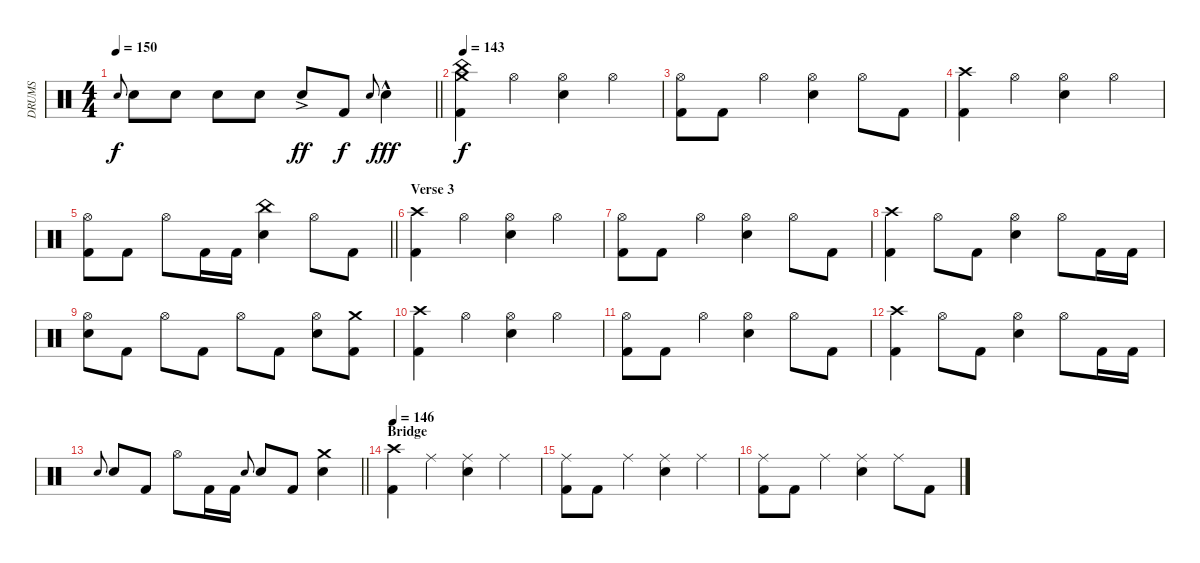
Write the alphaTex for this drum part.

\track ("DRUMS" "DRUMS") {instrument percussion}
\staff {score}
\articulation defaults
\ts (4 4)
\tempo 150
\clef neutral
\barLineRight lightlight
\ks c "Snare (hit) 2".8{gr onbeat dy f} "Snare (hit) 2".8 "Snare (hit) 2".8 "Snare (hit) 2".8 "Snare (hit) 2".8 "Snare (hit) 2"{ac}.8{dy ff} "Kick (hit) 2".8{dy f} "Snare (hit) 2".8{gr onbeat} "Snare (hit) 2"{hac}.4{dy fff}
|
\tempo 143
("Crash medium (hit)" "China (hit)" "Kick (hit) 2").4{dy f} "Hi-Hat (open)".4 ("Hi-Hat (open)" "Snare (hit) 2").4 "Hi-Hat (open)".4 |
("Hi-Hat (open)" "Kick (hit) 2").8 "Kick (hit) 2".8 "Hi-Hat (open)".4 ("Hi-Hat (open)" "Snare (hit) 2").4 "Hi-Hat (open)".8 "Kick (hit) 2".8 |
("Crash high (hit)" "Kick (hit) 2").4 "Hi-Hat (open)".4 ("Hi-Hat (open)" "Snare (hit) 2").4 "Hi-Hat (open)".4 |
\barLineRight lightlight
("Hi-Hat (open)" "Kick (hit) 2").8 "Kick (hit) 2".8 "Hi-Hat (open)".8 "Kick (hit) 2".16 "Kick (hit) 2".16 ("China (hit)" "Snare (hit) 2").4 "Hi-Hat (open)".8 "Kick (hit) 2".8 |
\section ("" "Verse 3")
("Crash high (hit)" "Kick (hit) 2").4 "Hi-Hat (open)".4 ("Hi-Hat (open)" "Snare (hit) 2").4 "Hi-Hat (open)".4 |
("Hi-Hat (open)" "Kick (hit) 2").8 "Kick (hit) 2".8 "Hi-Hat (open)".4 ("Hi-Hat (open)" "Snare (hit) 2").4 "Hi-Hat (open)".8 "Kick (hit) 2".8 |
("Crash high (hit)" "Kick (hit) 2").4 "Hi-Hat (open)".8 "Kick (hit) 2".8 ("Hi-Hat (open)" "Snare (hit) 2").4 "Hi-Hat (open)".8 "Kick (hit) 2".16 "Kick (hit) 2".16 |
("Hi-Hat (open)" "Snare (hit) 2").8 "Kick (hit) 2".8 "Hi-Hat (open)".8 "Kick (hit) 2".8 "Hi-Hat (open)".8 "Kick (hit) 2".8 ("Hi-Hat (open)" "Snare (hit) 2").8 ("Crash medium (hit)" "Kick (hit) 2").8 |
("Crash high (hit)" "Kick (hit) 2").4 "Hi-Hat (open)".4 ("Hi-Hat (open)" "Snare (hit) 2").4 "Hi-Hat (open)".4 |
("Hi-Hat (open)" "Kick (hit) 2").8 "Kick (hit) 2".8 "Hi-Hat (open)".4 ("Hi-Hat (open)" "Snare (hit) 2").4 "Hi-Hat (open)".8 "Kick (hit) 2".8 |
("Crash high (hit)" "Kick (hit) 2").4 "Hi-Hat (open)".8 "Kick (hit) 2".8 ("Hi-Hat (open)" "Snare (hit) 2").4 "Hi-Hat (open)".8 "Kick (hit) 2".16 "Kick (hit) 2".16 |
\barLineRight lightlight "Snare (hit) 2".8{gr onbeat} "Snare (hit) 2".8 "Kick (hit) 2".8 "Hi-Hat (open)".8 "Kick (hit) 2".16 "Kick (hit) 2".16 "Snare (hit) 2".8{gr onbeat} "Snare (hit) 2".8 "Kick (hit) 2".8
("Crash medium (hit)" "Snare (hit) 2").4 |
\section ("" "Bridge")
\tempo 146
("Crash high (hit)" "Kick (hit) 2").4 "Ride (middle)".4 ("Ride (middle)" "Snare (hit) 2").4 "Ride (middle)".4 |
("Ride (middle)" "Kick (hit) 2").8 "Kick (hit) 2".8 "Ride (middle)".4 ("Ride (middle)" "Snare (hit) 2").4 "Ride (middle)".4 |
("Ride (middle)" "Kick (hit) 2").8 "Kick (hit) 2".8 "Ride (middle)".4 ("Ride (middle)" "Snare (hit) 2").4 "Ride (middle)".8 "Kick (hit) 2".8
